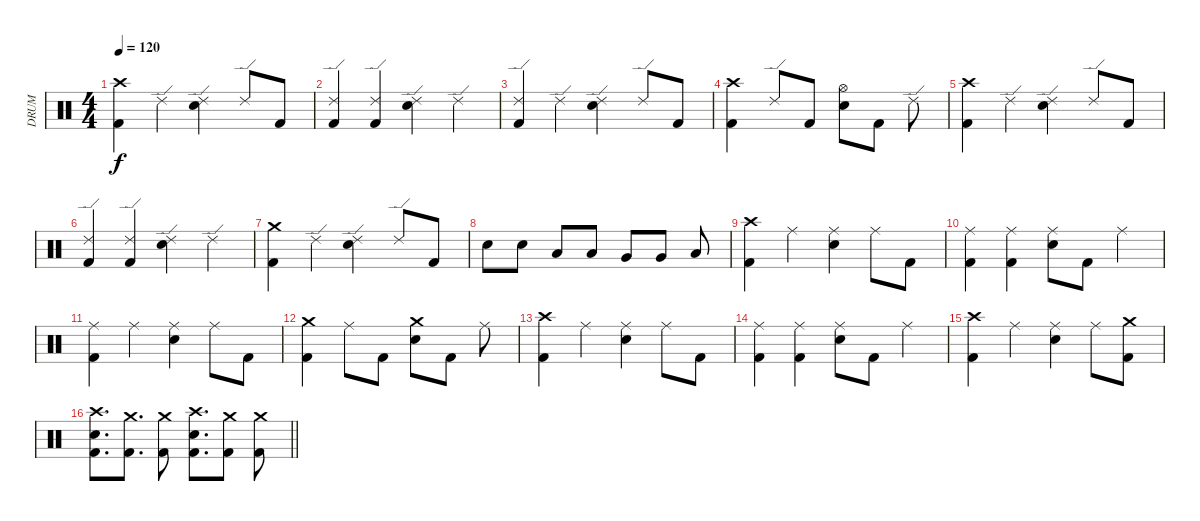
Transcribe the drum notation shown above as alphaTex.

\track ("DRUM" "DRUM") {instrument percussion}
\staff {score}
\articulation defaults
\ts (4 4)
\tempo 120
\clef neutral
\ks c
("Kick (hit) 2" "Crash high (hit)").4{dy f} "Ride (edge) 2".4 ("Ride (edge) 2" "Electric Snare (hit)").4 "Ride (edge) 2".8 "Kick (hit) 2".8 |
("Ride (edge) 2" "Kick (hit) 2").4 ("Ride (edge) 2" "Kick (hit) 2").4 ("Ride (edge) 2" "Electric Snare (hit)").4 "Ride (edge) 2".4 |
("Ride (edge) 2" "Kick (hit) 2").4 "Ride (edge) 2".4 ("Ride (edge) 2" "Electric Snare (hit)").4 "Ride (edge) 2".8 "Kick (hit) 2".8 |
("Crash high (hit)" "Kick (hit) 2").4 "Ride (edge) 2".8 "Kick (hit) 2".8 ("Hi-Hat (open)" "Electric Snare (hit)").8 "Kick (hit) 2".8 "Ride (edge) 2".8 |
("Crash high (hit)" "Kick (hit) 2").4 "Ride (edge) 2".4 ("Ride (edge) 2" "Electric Snare (hit)").4 "Ride (edge) 2".8 "Kick (hit) 2".8 |
("Ride (edge) 2" "Kick (hit) 2").4 ("Ride (edge) 2" "Kick (hit) 2").4 ("Ride (edge) 2" "Electric Snare (hit)").4 "Ride (edge) 2".4 |
("Crash medium (hit)" "Kick (hit) 2").4 "Ride (edge) 2".4 ("Ride (edge) 2" "Electric Snare (hit)").4 "Ride (edge) 2".8 "Kick (hit) 2".8 |
"Electric Snare (hit)".8 "Electric Snare (hit)".8 "Low Tom (hit)".8 "Low Tom (hit)".8 "Very Low Tom (hit)".8 "Very Low Tom (hit)".8 "Low Floor Tom (hit)".8 |
("Kick (hit) 2" "Crash high (hit)").4 "Ride (middle)".4 ("Ride (middle)" "Electric Snare (hit)").4 "Ride (middle)".8 "Kick (hit) 2".8 |
("Ride (middle)" "Kick (hit) 2").4 ("Ride (middle)" "Kick (hit) 2").4 ("Ride (middle)" "Electric Snare (hit)").8 "Kick (hit) 2".8 "Ride (middle)".4 |
("Kick (hit) 2" "Ride (middle)").4 "Ride (middle)".4 ("Ride (middle)" "Electric Snare (hit)").4 "Ride (middle)".8 "Kick (hit) 2".8 |
("Crash medium (hit)" "Kick (hit) 2").4 "Ride (middle)".8 "Kick (hit) 2".8 ("Crash medium (hit)" "Electric Snare (hit)").8 "Kick (hit) 2".8 "Ride (middle)".8 |
("Kick (hit) 2" "Crash high (hit)").4 "Ride (middle)".4 ("Ride (middle)" "Electric Snare (hit)").4 "Ride (middle)".8 "Kick (hit) 2".8 |
("Ride (middle)" "Kick (hit) 2").4 ("Ride (middle)" "Kick (hit) 2").4 ("Ride (middle)" "Electric Snare (hit)").8 "Kick (hit) 2".8 "Ride (middle)".4 |
("Kick (hit) 2" "Crash high (hit)").4 "Ride (middle)".4 ("Ride (middle)" "Electric Snare (hit)").4 "Ride (middle)".8 ("Kick (hit) 2" "Crash medium (hit)").8 |
\barLineRight lightlight
("Crash high (hit)" "Kick (hit) 2" "Electric Snare (hit)").8{d} ("Kick (hit) 2" "Crash medium (hit)").8{d} ("Kick (hit) 2" "Crash medium (hit)").8 ("Crash high (hit)" "Kick (hit) 2" "Electric Snare (hit)").8{d} ("Kick (hit) 2" "Crash medium (hit)").8 ("Kick (hit) 2" "Crash medium (hit)").8
